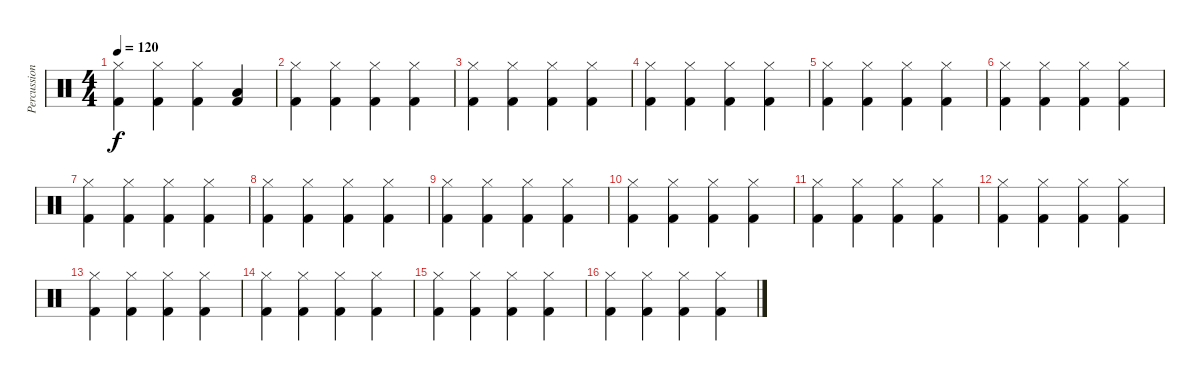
\track ("Percussions" "Percussion") {instrument percussion}
\staff {score}
\articulation defaults
\ts (4 4)
\tempo 120
\clef neutral
\ks c
("Hi-Hat (closed)" "Kick (hit) 2").4{dy f} ("Hi-Hat (closed)" "Kick (hit) 2").4 ("Hi-Hat (closed)" "Kick (hit) 2").4 ("Low Tom (hit)" "Kick (hit) 2").4 |
("Hi-Hat (closed)" "Kick (hit) 2").4 ("Hi-Hat (closed)" "Kick (hit) 2").4 ("Hi-Hat (closed)" "Kick (hit) 2").4 ("Hi-Hat (closed)" "Kick (hit) 2").4 |
("Hi-Hat (closed)" "Kick (hit) 2").4 ("Hi-Hat (closed)" "Kick (hit) 2").4 ("Hi-Hat (closed)" "Kick (hit) 2").4 ("Hi-Hat (closed)" "Kick (hit) 2").4 |
("Hi-Hat (closed)" "Kick (hit) 2").4 ("Hi-Hat (closed)" "Kick (hit) 2").4 ("Hi-Hat (closed)" "Kick (hit) 2").4 ("Hi-Hat (closed)" "Kick (hit) 2").4 |
("Hi-Hat (closed)" "Kick (hit) 2").4 ("Hi-Hat (closed)" "Kick (hit) 2").4 ("Hi-Hat (closed)" "Kick (hit) 2").4 ("Hi-Hat (closed)" "Kick (hit) 2").4 |
("Hi-Hat (closed)" "Kick (hit) 2").4 ("Hi-Hat (closed)" "Kick (hit) 2").4 ("Hi-Hat (closed)" "Kick (hit) 2").4 ("Hi-Hat (closed)" "Kick (hit) 2").4 |
("Hi-Hat (closed)" "Kick (hit) 2").4 ("Hi-Hat (closed)" "Kick (hit) 2").4 ("Hi-Hat (closed)" "Kick (hit) 2").4 ("Hi-Hat (closed)" "Kick (hit) 2").4 |
("Hi-Hat (closed)" "Kick (hit) 2").4 ("Hi-Hat (closed)" "Kick (hit) 2").4 ("Hi-Hat (closed)" "Kick (hit) 2").4 ("Hi-Hat (closed)" "Kick (hit) 2").4 |
("Hi-Hat (closed)" "Kick (hit) 2").4 ("Hi-Hat (closed)" "Kick (hit) 2").4 ("Hi-Hat (closed)" "Kick (hit) 2").4 ("Hi-Hat (closed)" "Kick (hit) 2").4 |
("Hi-Hat (closed)" "Kick (hit) 2").4 ("Hi-Hat (closed)" "Kick (hit) 2").4 ("Hi-Hat (closed)" "Kick (hit) 2").4 ("Hi-Hat (closed)" "Kick (hit) 2").4 |
("Hi-Hat (closed)" "Kick (hit) 2").4 ("Hi-Hat (closed)" "Kick (hit) 2").4 ("Hi-Hat (closed)" "Kick (hit) 2").4 ("Hi-Hat (closed)" "Kick (hit) 2").4 |
("Hi-Hat (closed)" "Kick (hit) 2").4 ("Hi-Hat (closed)" "Kick (hit) 2").4 ("Hi-Hat (closed)" "Kick (hit) 2").4 ("Hi-Hat (closed)" "Kick (hit) 2").4 |
("Hi-Hat (closed)" "Kick (hit) 2").4 ("Hi-Hat (closed)" "Kick (hit) 2").4 ("Hi-Hat (closed)" "Kick (hit) 2").4 ("Hi-Hat (closed)" "Kick (hit) 2").4 |
("Hi-Hat (closed)" "Kick (hit) 2").4 ("Hi-Hat (closed)" "Kick (hit) 2").4 ("Hi-Hat (closed)" "Kick (hit) 2").4 ("Hi-Hat (closed)" "Kick (hit) 2").4 |
("Hi-Hat (closed)" "Kick (hit) 2").4 ("Hi-Hat (closed)" "Kick (hit) 2").4 ("Hi-Hat (closed)" "Kick (hit) 2").4 ("Hi-Hat (closed)" "Kick (hit) 2").4 |
("Hi-Hat (closed)" "Kick (hit) 2").4 ("Hi-Hat (closed)" "Kick (hit) 2").4 ("Hi-Hat (closed)" "Kick (hit) 2").4 ("Hi-Hat (closed)" "Kick (hit) 2").4
